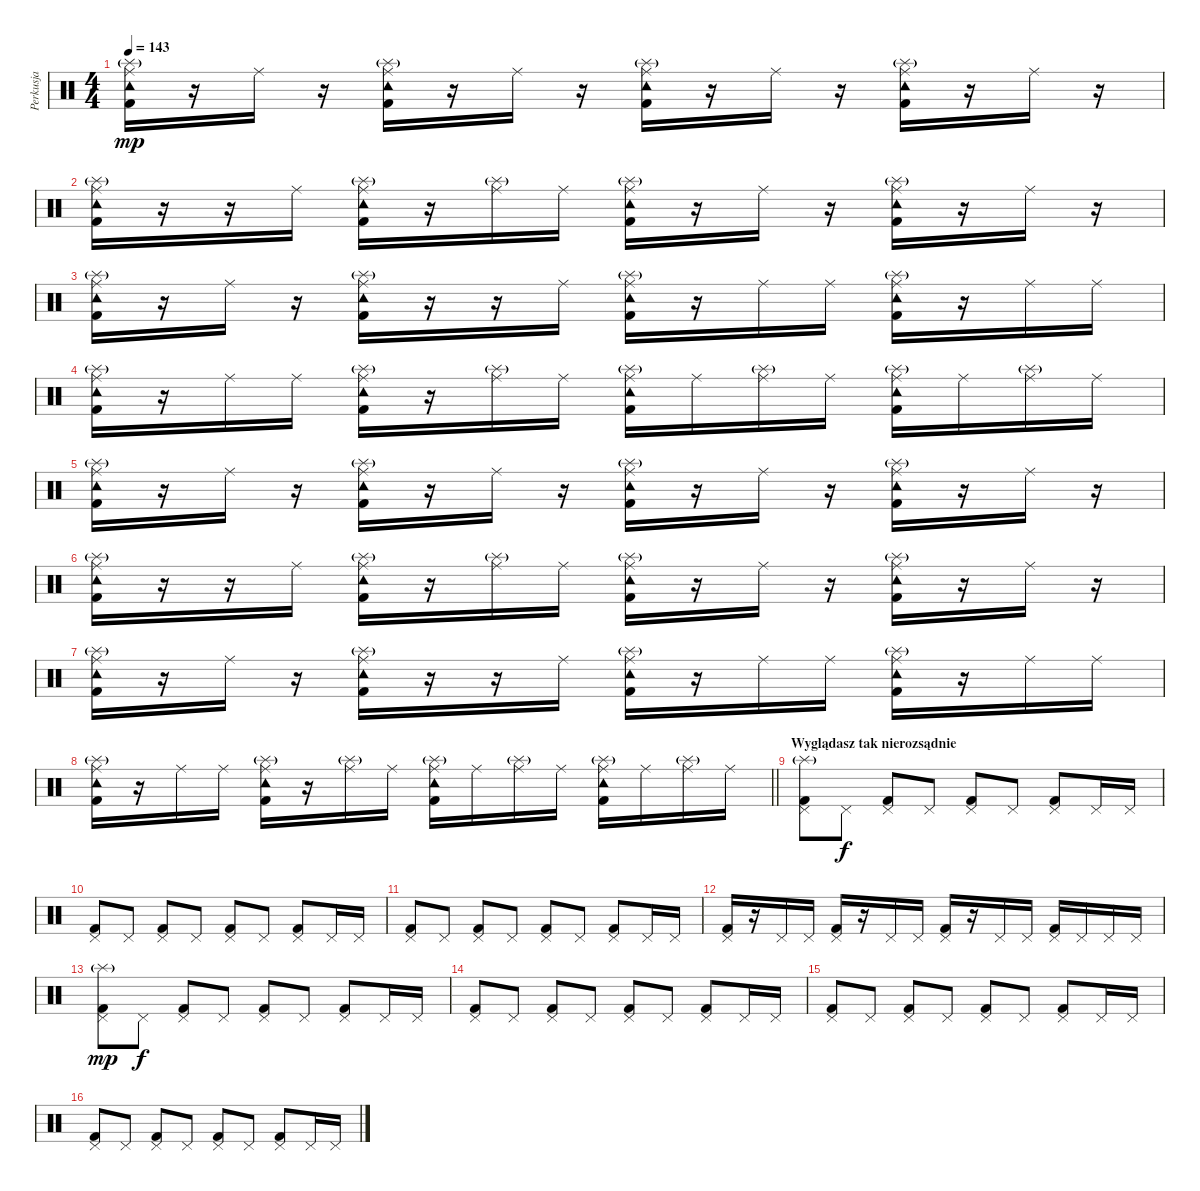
\track ("Perkusja" "Perkusja") {instrument percussion}
\staff {score}
\articulation defaults
\ts (4 4)
\tempo 143
\clef neutral
\ks c
("Ride (middle)" "Tambourine (hit)" "Splash (hit)"{g} "Kick (hit) 2").16{dy mp} r.16 "Ride (middle)".16 r.16 ("Ride (middle)" "Tambourine (hit)" "Splash (hit)"{g} "Kick (hit) 2").16 r.16 "Ride (middle)".16 r.16 ("Ride (middle)" "Tambourine (hit)" "Splash (hit)"{g} "Kick (hit) 2").16 r.16 "Ride (middle)".16 r.16 ("Ride (middle)" "Tambourine (hit)" "Splash (hit)"{g} "Kick (hit) 2").16 r.16 "Ride (middle)".16 r.16 |
("Ride (middle)" "Tambourine (hit)" "Splash (hit)"{g} "Kick (hit) 2").16 r.16 r.16 "Ride (middle)".16 ("Ride (middle)" "Tambourine (hit)" "Splash (hit)"{g} "Kick (hit) 2").16 r.16 ("Ride (middle)" "Splash (hit)"{g}).16 "Ride (middle)".16 ("Ride (middle)" "Tambourine (hit)" "Splash (hit)"{g} "Kick (hit) 2").16 r.16 "Ride (middle)".16 r.16 ("Ride (middle)" "Tambourine (hit)" "Splash (hit)"{g} "Kick (hit) 2").16 r.16 "Ride (middle)".16 r.16 |
("Ride (middle)" "Tambourine (hit)" "Splash (hit)"{g} "Kick (hit) 2").16 r.16 "Ride (middle)".16 r.16 ("Ride (middle)" "Tambourine (hit)" "Splash (hit)"{g} "Kick (hit) 2").16 r.16 r.16 "Ride (middle)".16 ("Ride (middle)" "Tambourine (hit)" "Splash (hit)"{g} "Kick (hit) 2").16 r.16 "Ride (middle)".16 "Ride (middle)".16 ("Ride (middle)" "Tambourine (hit)" "Splash (hit)"{g} "Kick (hit) 2").16 r.16 "Ride (middle)".16 "Ride (middle)".16 |
("Ride (middle)" "Tambourine (hit)" "Splash (hit)"{g} "Kick (hit) 2").16 r.16 "Ride (middle)".16 "Ride (middle)".16 ("Ride (middle)" "Tambourine (hit)" "Splash (hit)"{g} "Kick (hit) 2").16 r.16 ("Ride (middle)" "Splash (hit)"{g}).16 "Ride (middle)".16 ("Ride (middle)" "Tambourine (hit)" "Splash (hit)"{g} "Kick (hit) 2").16 "Ride (middle)".16 ("Ride (middle)" "Splash (hit)"{g}).16 "Ride (middle)".16 ("Ride (middle)" "Tambourine (hit)" "Splash (hit)"{g} "Kick (hit) 2").16 "Ride (middle)".16 ("Ride (middle)" "Splash (hit)"{g}).16 "Ride (middle)".16 |
("Ride (middle)" "Tambourine (hit)" "Splash (hit)"{g} "Kick (hit) 2").16 r.16 "Ride (middle)".16 r.16 ("Ride (middle)" "Tambourine (hit)" "Splash (hit)"{g} "Kick (hit) 2").16 r.16 "Ride (middle)".16 r.16 ("Ride (middle)" "Tambourine (hit)" "Splash (hit)"{g} "Kick (hit) 2").16 r.16 "Ride (middle)".16 r.16 ("Ride (middle)" "Tambourine (hit)" "Splash (hit)"{g} "Kick (hit) 2").16 r.16 "Ride (middle)".16 r.16 |
("Ride (middle)" "Tambourine (hit)" "Splash (hit)"{g} "Kick (hit) 2").16 r.16 r.16 "Ride (middle)".16 ("Ride (middle)" "Tambourine (hit)" "Splash (hit)"{g} "Kick (hit) 2").16 r.16 ("Ride (middle)" "Splash (hit)"{g}).16 "Ride (middle)".16 ("Ride (middle)" "Tambourine (hit)" "Splash (hit)"{g} "Kick (hit) 2").16 r.16 "Ride (middle)".16 r.16 ("Ride (middle)" "Tambourine (hit)" "Splash (hit)"{g} "Kick (hit) 2").16 r.16 "Ride (middle)".16 r.16 |
("Ride (middle)" "Tambourine (hit)" "Splash (hit)"{g} "Kick (hit) 2").16 r.16 "Ride (middle)".16 r.16 ("Ride (middle)" "Tambourine (hit)" "Splash (hit)"{g} "Kick (hit) 2").16 r.16 r.16 "Ride (middle)".16 ("Ride (middle)" "Tambourine (hit)" "Splash (hit)"{g} "Kick (hit) 2").16 r.16 "Ride (middle)".16 "Ride (middle)".16 ("Ride (middle)" "Tambourine (hit)" "Splash (hit)"{g} "Kick (hit) 2").16 r.16 "Ride (middle)".16 "Ride (middle)".16 |
\barLineRight lightlight
("Ride (middle)" "Tambourine (hit)" "Splash (hit)"{g} "Kick (hit) 2").16 r.16 "Ride (middle)".16 "Ride (middle)".16 ("Ride (middle)" "Tambourine (hit)" "Splash (hit)"{g} "Kick (hit) 2").16 r.16 ("Ride (middle)" "Splash (hit)"{g}).16 "Ride (middle)".16 ("Ride (middle)" "Tambourine (hit)" "Splash (hit)"{g} "Kick (hit) 2").16 "Ride (middle)".16 ("Ride (middle)" "Splash (hit)"{g}).16 "Ride (middle)".16 ("Ride (middle)" "Tambourine (hit)" "Splash (hit)"{g} "Kick (hit) 2").16 "Ride (middle)".16 ("Ride (middle)" "Splash (hit)"{g}).16 "Ride (middle)".16 |
\section ("" "Wyglądasz tak nierozsądnie")
("Splash (hit)"{g} "Pedal Hi-Hat (hit)" "Kick (hit) 2").8 "Pedal Hi-Hat (hit)".8{dy f} ("Pedal Hi-Hat (hit)" "Kick (hit) 2").8 "Pedal Hi-Hat (hit)".8 ("Pedal Hi-Hat (hit)" "Kick (hit) 2").8 "Pedal Hi-Hat (hit)".8 ("Pedal Hi-Hat (hit)" "Kick (hit) 2").8 "Pedal Hi-Hat (hit)".16 "Pedal Hi-Hat (hit)".16 |
("Pedal Hi-Hat (hit)" "Kick (hit) 2").8 "Pedal Hi-Hat (hit)".8 ("Pedal Hi-Hat (hit)" "Kick (hit) 2").8 "Pedal Hi-Hat (hit)".8 ("Pedal Hi-Hat (hit)" "Kick (hit) 2").8 "Pedal Hi-Hat (hit)".8 ("Pedal Hi-Hat (hit)" "Kick (hit) 2").8 "Pedal Hi-Hat (hit)".16 "Pedal Hi-Hat (hit)".16 |
("Pedal Hi-Hat (hit)" "Kick (hit) 2").8 "Pedal Hi-Hat (hit)".8 ("Pedal Hi-Hat (hit)" "Kick (hit) 2").8 "Pedal Hi-Hat (hit)".8 ("Pedal Hi-Hat (hit)" "Kick (hit) 2").8 "Pedal Hi-Hat (hit)".8 ("Pedal Hi-Hat (hit)" "Kick (hit) 2").8 "Pedal Hi-Hat (hit)".16 "Pedal Hi-Hat (hit)".16 |
("Pedal Hi-Hat (hit)" "Kick (hit) 2").16 r.16 "Pedal Hi-Hat (hit)".16 "Pedal Hi-Hat (hit)".16 ("Pedal Hi-Hat (hit)" "Kick (hit) 2").16 r.16 "Pedal Hi-Hat (hit)".16 "Pedal Hi-Hat (hit)".16 ("Pedal Hi-Hat (hit)" "Kick (hit) 2").16 r.16 "Pedal Hi-Hat (hit)".16 "Pedal Hi-Hat (hit)".16 ("Pedal Hi-Hat (hit)" "Kick (hit) 2").16 "Pedal Hi-Hat (hit)".16 "Pedal Hi-Hat (hit)".16 "Pedal Hi-Hat (hit)".16 |
("Splash (hit)"{g} "Pedal Hi-Hat (hit)" "Kick (hit) 2").8{dy mp} "Pedal Hi-Hat (hit)".8{dy f} ("Pedal Hi-Hat (hit)" "Kick (hit) 2").8 "Pedal Hi-Hat (hit)".8 ("Pedal Hi-Hat (hit)" "Kick (hit) 2").8 "Pedal Hi-Hat (hit)".8 ("Pedal Hi-Hat (hit)" "Kick (hit) 2").8 "Pedal Hi-Hat (hit)".16 "Pedal Hi-Hat (hit)".16 |
("Pedal Hi-Hat (hit)" "Kick (hit) 2").8 "Pedal Hi-Hat (hit)".8 ("Pedal Hi-Hat (hit)" "Kick (hit) 2").8 "Pedal Hi-Hat (hit)".8 ("Pedal Hi-Hat (hit)" "Kick (hit) 2").8 "Pedal Hi-Hat (hit)".8 ("Pedal Hi-Hat (hit)" "Kick (hit) 2").8 "Pedal Hi-Hat (hit)".16 "Pedal Hi-Hat (hit)".16 |
("Pedal Hi-Hat (hit)" "Kick (hit) 2").8 "Pedal Hi-Hat (hit)".8 ("Pedal Hi-Hat (hit)" "Kick (hit) 2").8 "Pedal Hi-Hat (hit)".8 ("Pedal Hi-Hat (hit)" "Kick (hit) 2").8 "Pedal Hi-Hat (hit)".8 ("Pedal Hi-Hat (hit)" "Kick (hit) 2").8 "Pedal Hi-Hat (hit)".16 "Pedal Hi-Hat (hit)".16 |
("Pedal Hi-Hat (hit)" "Kick (hit) 2").8 "Pedal Hi-Hat (hit)".8 ("Pedal Hi-Hat (hit)" "Kick (hit) 2").8 "Pedal Hi-Hat (hit)".8 ("Pedal Hi-Hat (hit)" "Kick (hit) 2").8 "Pedal Hi-Hat (hit)".8 ("Pedal Hi-Hat (hit)" "Kick (hit) 2").8 "Pedal Hi-Hat (hit)".16 "Pedal Hi-Hat (hit)".16
